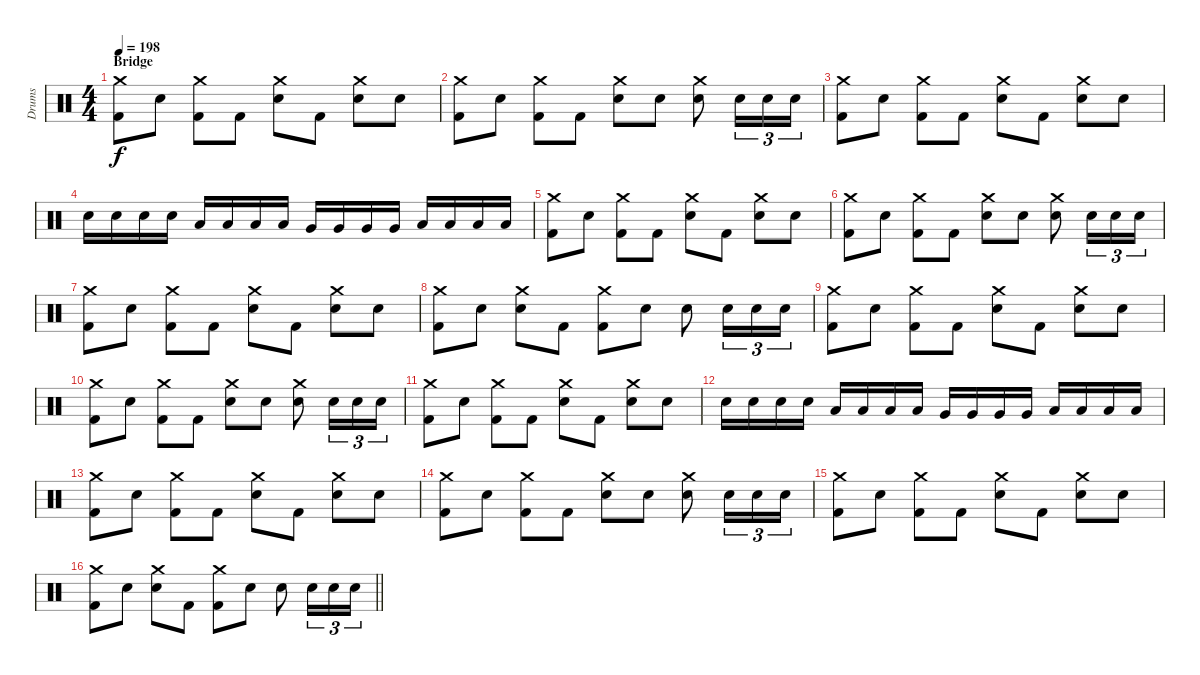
\track ("Drums" "Drums") {instrument percussion}
\staff {score}
\articulation defaults
\ts (4 4)
\section ("" "Bridge")
\tempo 198
\clef neutral
\ks c
("Crash medium (hit)" "Kick (hit) 2").8{dy f} "Electric Snare (hit)".8 ("Crash medium (hit)" "Kick (hit) 2").8 "Kick (hit) 2".8 ("Crash medium (hit)" "Electric Snare (hit)").8 "Kick (hit) 2".8 ("Crash medium (hit)" "Electric Snare (hit)").8 "Electric Snare (hit)".8 |
("Crash medium (hit)" "Kick (hit) 2").8 "Electric Snare (hit)".8 ("Crash medium (hit)" "Kick (hit) 2").8 "Kick (hit) 2".8 ("Crash medium (hit)" "Electric Snare (hit)").8 "Electric Snare (hit)".8 ("Crash medium (hit)" "Electric Snare (hit)").8 "Electric Snare (hit)".16{tu (3 2)} "Electric Snare (hit)".16{tu (3 2)} "Electric Snare (hit)".16{tu (3 2)} |
("Crash medium (hit)" "Kick (hit) 2").8 "Electric Snare (hit)".8 ("Crash medium (hit)" "Kick (hit) 2").8 "Kick (hit) 2".8 ("Crash medium (hit)" "Electric Snare (hit)").8 "Kick (hit) 2".8 ("Crash medium (hit)" "Electric Snare (hit)").8 "Electric Snare (hit)".8 |
"Electric Snare (hit)".16 "Electric Snare (hit)".16 "Electric Snare (hit)".16 "Electric Snare (hit)".16 "Low Tom (hit)".16 "Low Tom (hit)".16 "Low Tom (hit)".16 "Low Tom (hit)".16 "Very Low Tom (hit)".16 "Very Low Tom (hit)".16 "Very Low Tom (hit)".16 "Very Low Tom (hit)".16 "Low Floor Tom (hit)".16 "Low Floor Tom (hit)".16 "Low Floor Tom (hit)".16 "Low Floor Tom (hit)".16 |
("Crash medium (hit)" "Kick (hit) 2").8 "Electric Snare (hit)".8 ("Crash medium (hit)" "Kick (hit) 2").8 "Kick (hit) 2".8 ("Crash medium (hit)" "Electric Snare (hit)").8 "Kick (hit) 2".8 ("Crash medium (hit)" "Electric Snare (hit)").8 "Electric Snare (hit)".8 |
("Crash medium (hit)" "Kick (hit) 2").8 "Electric Snare (hit)".8 ("Crash medium (hit)" "Kick (hit) 2").8 "Kick (hit) 2".8 ("Crash medium (hit)" "Electric Snare (hit)").8 "Electric Snare (hit)".8 ("Crash medium (hit)" "Electric Snare (hit)").8 "Electric Snare (hit)".16{tu (3 2)} "Electric Snare (hit)".16{tu (3 2)} "Electric Snare (hit)".16{tu (3 2)} |
("Crash medium (hit)" "Kick (hit) 2").8 "Electric Snare (hit)".8 ("Crash medium (hit)" "Kick (hit) 2").8 "Kick (hit) 2".8 ("Crash medium (hit)" "Electric Snare (hit)").8 "Kick (hit) 2".8 ("Crash medium (hit)" "Electric Snare (hit)").8 "Electric Snare (hit)".8 |
("Crash medium (hit)" "Kick (hit) 2").8 "Electric Snare (hit)".8 ("Crash medium (hit)" "Electric Snare (hit)").8 "Kick (hit) 2".8 ("Crash medium (hit)" "Kick (hit) 2").8 "Electric Snare (hit)".8 "Electric Snare (hit)".8 "Electric Snare (hit)".16{tu (3 2)} "Electric Snare (hit)".16{tu (3 2)} "Electric Snare (hit)".16{tu (3 2)} |
("Crash medium (hit)" "Kick (hit) 2").8 "Electric Snare (hit)".8 ("Crash medium (hit)" "Kick (hit) 2").8 "Kick (hit) 2".8 ("Crash medium (hit)" "Electric Snare (hit)").8 "Kick (hit) 2".8 ("Crash medium (hit)" "Electric Snare (hit)").8 "Electric Snare (hit)".8 |
("Crash medium (hit)" "Kick (hit) 2").8 "Electric Snare (hit)".8 ("Crash medium (hit)" "Kick (hit) 2").8 "Kick (hit) 2".8 ("Crash medium (hit)" "Electric Snare (hit)").8 "Electric Snare (hit)".8 ("Crash medium (hit)" "Electric Snare (hit)").8 "Electric Snare (hit)".16{tu (3 2)} "Electric Snare (hit)".16{tu (3 2)} "Electric Snare (hit)".16{tu (3 2)} |
("Crash medium (hit)" "Kick (hit) 2").8 "Electric Snare (hit)".8 ("Crash medium (hit)" "Kick (hit) 2").8 "Kick (hit) 2".8 ("Crash medium (hit)" "Electric Snare (hit)").8 "Kick (hit) 2".8 ("Crash medium (hit)" "Electric Snare (hit)").8 "Electric Snare (hit)".8 |
"Electric Snare (hit)".16 "Electric Snare (hit)".16 "Electric Snare (hit)".16 "Electric Snare (hit)".16 "Low Tom (hit)".16 "Low Tom (hit)".16 "Low Tom (hit)".16 "Low Tom (hit)".16 "Very Low Tom (hit)".16 "Very Low Tom (hit)".16 "Very Low Tom (hit)".16 "Very Low Tom (hit)".16 "Low Floor Tom (hit)".16 "Low Floor Tom (hit)".16 "Low Floor Tom (hit)".16 "Low Floor Tom (hit)".16 |
("Crash medium (hit)" "Kick (hit) 2").8 "Electric Snare (hit)".8 ("Crash medium (hit)" "Kick (hit) 2").8 "Kick (hit) 2".8 ("Crash medium (hit)" "Electric Snare (hit)").8 "Kick (hit) 2".8 ("Crash medium (hit)" "Electric Snare (hit)").8 "Electric Snare (hit)".8 |
("Crash medium (hit)" "Kick (hit) 2").8 "Electric Snare (hit)".8 ("Crash medium (hit)" "Kick (hit) 2").8 "Kick (hit) 2".8 ("Crash medium (hit)" "Electric Snare (hit)").8 "Electric Snare (hit)".8 ("Crash medium (hit)" "Electric Snare (hit)").8 "Electric Snare (hit)".16{tu (3 2)} "Electric Snare (hit)".16{tu (3 2)} "Electric Snare (hit)".16{tu (3 2)} |
("Crash medium (hit)" "Kick (hit) 2").8 "Electric Snare (hit)".8 ("Crash medium (hit)" "Kick (hit) 2").8 "Kick (hit) 2".8 ("Crash medium (hit)" "Electric Snare (hit)").8 "Kick (hit) 2".8 ("Crash medium (hit)" "Electric Snare (hit)").8 "Electric Snare (hit)".8 |
\barLineRight lightlight
("Crash medium (hit)" "Kick (hit) 2").8 "Electric Snare (hit)".8 ("Crash medium (hit)" "Electric Snare (hit)").8 "Kick (hit) 2".8 ("Crash medium (hit)" "Kick (hit) 2").8 "Electric Snare (hit)".8 "Electric Snare (hit)".8 "Electric Snare (hit)".16{tu (3 2)} "Electric Snare (hit)".16{tu (3 2)} "Electric Snare (hit)".16{tu (3 2)}
